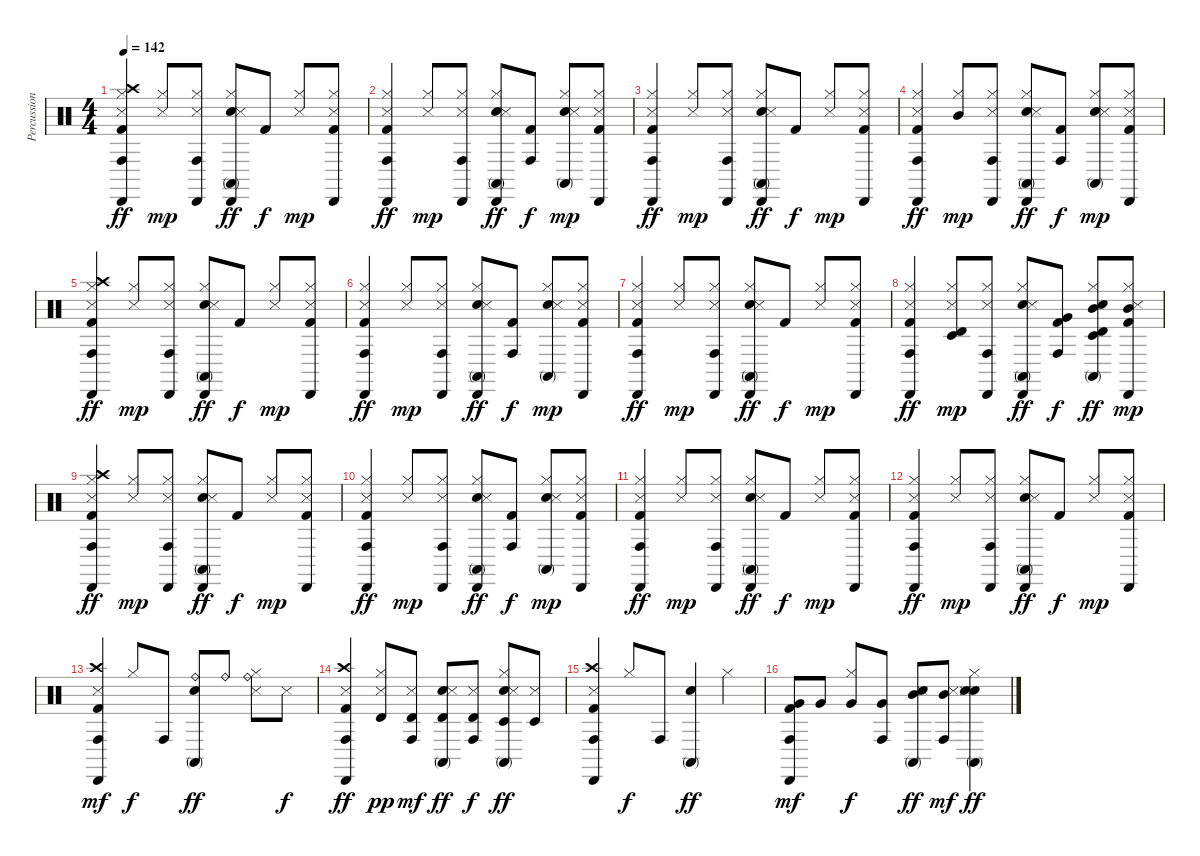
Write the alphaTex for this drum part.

\track ("Percussion" "Percussion") {instrument percussion}
\staff {score}
\articulation defaults
\ts (4 4)
\tempo 142
\clef neutral
\ks c
("Conga high (hit)" "Cabasa (hit)" "Crash high (hit)" "Hi-Hat (closed)" "Snare (side stick) 3" "Kick (hit) 2").4{dy ff} ("Hi-Hat (closed)" "Snare (side stick) 3").8{dy mp} ("Conga high (hit)" "Cabasa (hit)" "Hi-Hat (closed)" "Snare (side stick) 3").8 ("Conga high (mute)" "Cabasa (hit)" "Hi-Hat (closed)" "Hand Clap (hit)" "Snare (side stick) 3").8{dy ff} "Kick (hit) 2".8{dy f} ("Hi-Hat (closed)" "Snare (side stick) 3").8{dy mp} ("Cabasa (hit)" "Hi-Hat (closed)" "Snare (side stick) 3" "Kick (hit) 2").8 |
("Conga high (hit)" "Cabasa (hit)" "Hi-Hat (closed)" "Snare (side stick) 3" "Kick (hit) 2").4{dy ff} ("Hi-Hat (closed)" "Snare (side stick) 3").8{dy mp} ("Conga high (hit)" "Cabasa (hit)" "Hi-Hat (closed)" "Snare (side stick) 3").8 ("Conga high (mute)" "Cabasa (hit)" "Hi-Hat (closed)" "Hand Clap (hit)" "Snare (side stick) 3").8{dy ff} ("Conga high (hit)" "Kick (hit) 2").8{dy f} ("Conga high (mute)" "Hi-Hat (closed)" "Hand Clap (hit)" "Snare (side stick) 3").8{dy mp} ("Cabasa (hit)" "Hi-Hat (closed)" "Snare (side stick) 3" "Kick (hit) 2").8 |
("Conga high (hit)" "Cabasa (hit)" "Hi-Hat (closed)" "Snare (side stick) 3" "Kick (hit) 2").4{dy ff} ("Hi-Hat (closed)" "Snare (side stick) 3").8{dy mp} ("Conga high (hit)" "Cabasa (hit)" "Hi-Hat (closed)" "Snare (side stick) 3").8 ("Conga high (mute)" "Cabasa (hit)" "Hi-Hat (closed)" "Hand Clap (hit)" "Snare (side stick) 3").8{dy ff} "Kick (hit) 2".8{dy f} ("Hi-Hat (closed)" "Snare (side stick) 3").8{dy mp} ("Cabasa (hit)" "Hi-Hat (closed)" "Snare (side stick) 3" "Kick (hit) 2").8 |
("Conga high (hit)" "Cabasa (hit)" "Hi-Hat (closed)" "Snare (side stick) 3" "Kick (hit) 2").4{dy ff} ("Hi-Hat (closed)" "Mid Tom (hit)").8{dy mp} ("Conga high (hit)" "Cabasa (hit)" "Hi-Hat (closed)" "Snare (side stick) 3").8 ("Conga high (mute)" "Cabasa (hit)" "Hi-Hat (closed)" "Hand Clap (hit)" "Snare (side stick) 3").8{dy ff} ("Conga high (hit)" "Kick (hit) 2").8{dy f} ("Conga high (mute)" "Hi-Hat (closed)" "Hand Clap (hit)" "Snare (side stick) 3").8{dy mp} ("Cabasa (hit)" "Hi-Hat (closed)" "Snare (side stick) 3" "Kick (hit) 2").8 |
("Conga high (hit)" "Cabasa (hit)" "Crash high (hit)" "Hi-Hat (closed)" "Snare (side stick) 3" "Kick (hit) 2").4{dy ff} ("Hi-Hat (closed)" "Snare (side stick) 3").8{dy mp} ("Conga high (hit)" "Cabasa (hit)" "Hi-Hat (closed)" "Snare (side stick) 3").8 ("Conga high (mute)" "Cabasa (hit)" "Hi-Hat (closed)" "Hand Clap (hit)" "Snare (side stick) 3").8{dy ff} "Kick (hit) 2".8{dy f} ("Hi-Hat (closed)" "Snare (side stick) 3").8{dy mp} ("Cabasa (hit)" "Hi-Hat (closed)" "Snare (side stick) 3" "Kick (hit) 2").8 |
("Conga high (hit)" "Cabasa (hit)" "Hi-Hat (closed)" "Snare (side stick) 3" "Kick (hit) 2").4{dy ff} ("Hi-Hat (closed)" "Snare (side stick) 3").8{dy mp} ("Conga high (hit)" "Cabasa (hit)" "Hi-Hat (closed)" "Snare (side stick) 3").8 ("Conga high (mute)" "Cabasa (hit)" "Hi-Hat (closed)" "Hand Clap (hit)" "Snare (side stick) 3").8{dy ff} ("Conga high (hit)" "Kick (hit) 2").8{dy f} ("Conga high (mute)" "Hi-Hat (closed)" "Hand Clap (hit)" "Snare (side stick) 3").8{dy mp} ("Cabasa (hit)" "Hi-Hat (closed)" "Snare (side stick) 3" "Kick (hit) 2").8 |
("Conga high (hit)" "Cabasa (hit)" "Hi-Hat (closed)" "Snare (side stick) 3" "Kick (hit) 2").4{dy ff} ("Hi-Hat (closed)" "Snare (side stick) 3").8{dy mp} ("Conga high (hit)" "Cabasa (hit)" "Hi-Hat (closed)" "Snare (side stick) 3").8 ("Conga high (mute)" "Cabasa (hit)" "Hi-Hat (closed)" "Hand Clap (hit)" "Snare (side stick) 3").8{dy ff} "Kick (hit) 2".8{dy f} ("Hi-Hat (closed)" "Snare (side stick) 3").8{dy mp} ("Cabasa (hit)" "Hi-Hat (closed)" "Snare (side stick) 3" "Kick (hit) 2").8 |
("Conga high (hit)" "Cabasa (hit)" "Hi-Hat (closed)" "Snare (side stick) 3" "Kick (hit) 2").4{dy ff} ("Timbale low (hit)" "Timbale high (hit)" "Hi-Hat (closed)" "Snare (side stick) 3").8{dy mp} ("Conga high (hit)" "Cabasa (hit)" "Hi-Hat (closed)" "Snare (side stick) 3").8 ("Conga high (mute)" "Cabasa (hit)" "Hi-Hat (closed)" "Hand Clap (hit)" "Snare (side stick) 3").8{dy ff} ("Conga high (hit)" "Very Low Tom (hit)" "Kick (hit) 2").8{dy f} ("Timbale low (hit)" "Timbale high (hit)" "Conga high (mute)" "Mid Tom (hit)" "Hi-Hat (closed)" "Hand Clap (hit)").8{dy ff} ("Cabasa (hit)" "Mid Tom (hit)" "Hi-Hat (closed)" "Snare (side stick) 3" "Kick (hit) 2").8{dy mp} |
("Conga high (hit)" "Cabasa (hit)" "Crash high (hit)" "Hi-Hat (closed)" "Snare (side stick) 3" "Kick (hit) 2").4{dy ff} ("Hi-Hat (closed)" "Snare (side stick) 3").8{dy mp} ("Conga high (hit)" "Cabasa (hit)" "Hi-Hat (closed)" "Snare (side stick) 3").8 ("Conga high (mute)" "Cabasa (hit)" "Hi-Hat (closed)" "Hand Clap (hit)" "Snare (side stick) 3").8{dy ff} "Kick (hit) 2".8{dy f} ("Hi-Hat (closed)" "Snare (side stick) 3").8{dy mp} ("Cabasa (hit)" "Hi-Hat (closed)" "Snare (side stick) 3" "Kick (hit) 2").8 |
("Conga high (hit)" "Cabasa (hit)" "Hi-Hat (closed)" "Snare (side stick) 3" "Kick (hit) 2").4{dy ff} ("Hi-Hat (closed)" "Snare (side stick) 3").8{dy mp} ("Conga high (hit)" "Cabasa (hit)" "Hi-Hat (closed)" "Snare (side stick) 3").8 ("Conga high (mute)" "Cabasa (hit)" "Hi-Hat (closed)" "Hand Clap (hit)" "Snare (side stick) 3").8{dy ff} ("Conga high (hit)" "Kick (hit) 2").8{dy f} ("Conga high (mute)" "Hi-Hat (closed)" "Hand Clap (hit)" "Snare (side stick) 3").8{dy mp} ("Cabasa (hit)" "Hi-Hat (closed)" "Snare (side stick) 3" "Kick (hit) 2").8 |
("Conga high (hit)" "Cabasa (hit)" "Hi-Hat (closed)" "Snare (side stick) 3" "Kick (hit) 2").4{dy ff} ("Hi-Hat (closed)" "Snare (side stick) 3").8{dy mp} ("Conga high (hit)" "Cabasa (hit)" "Hi-Hat (closed)" "Snare (side stick) 3").8 ("Conga high (mute)" "Cabasa (hit)" "Hi-Hat (closed)" "Hand Clap (hit)" "Snare (side stick) 3").8{dy ff} "Kick (hit) 2".8{dy f} ("Hi-Hat (closed)" "Snare (side stick) 3").8{dy mp} ("Cabasa (hit)" "Hi-Hat (closed)" "Snare (side stick) 3" "Kick (hit) 2").8 |
("Conga high (hit)" "Cabasa (hit)" "Hi-Hat (closed)" "Snare (side stick) 3" "Kick (hit) 2").4{dy ff} ("Hi-Hat (closed)" "Snare (side stick) 3").8{dy mp} ("Conga high (hit)" "Cabasa (hit)" "Hi-Hat (closed)" "Snare (side stick) 3").8 ("Conga high (mute)" "Cabasa (hit)" "Hi-Hat (closed)" "Hand Clap (hit)" "Snare (side stick) 3").8{dy ff} "Kick (hit) 2".8{dy f} ("Hi-Hat (closed)" "Snare (side stick) 3").8{dy mp} ("Cabasa (hit)" "Hi-Hat (closed)" "Snare (side stick) 3" "Kick (hit) 2").8 |
("Conga high (hit)" "Cabasa (hit)" "Crash high (hit)" "Snare (side stick) 3" "Kick (hit) 2").4{dy mf} "Hi-Hat (closed)".8{dy f} "Conga high (hit)".8 ("Conga high (mute)" "Ride (bell)" "Hand Clap (hit)").8{dy ff} "Ride (bell)".8 ("Ride (bell)" "Hi-Hat (closed)" "Snare (side stick) 3").8 "Snare (side stick) 3".8{dy f} |
("Conga high (hit)" "Cabasa (hit)" "Crash high (hit)" "Snare (side stick) 3" "Kick (hit) 2").4{dy ff} ("Timbale high (hit)" "Hi-Hat (closed)" "Snare (side stick) 3").8{dy pp} ("Timbale high (hit)" "Conga high (hit)" "Snare (side stick) 3").8{dy mf} ("Timbale high (hit)" "Conga high (mute)" "Hand Clap (hit)" "Snare (side stick) 3").8{dy ff} ("Timbale high (hit)" "Conga high (hit)" "Snare (side stick) 3").8{dy f} ("Timbale low (hit)" "Conga high (mute)" "Hi-Hat (closed)" "Hand Clap (hit)" "Snare (side stick) 3").8{dy ff} ("Timbale low (hit)" "Snare (side stick) 3").8 |
("Conga high (hit)" "Cabasa (hit)" "Crash high (hit)" "Snare (side stick) 3" "Kick (hit) 2").4 "Hi-Hat (closed)".8{dy f} "Conga high (hit)".8 ("Conga high (mute)" "Hand Clap (hit)").4{dy ff} "Hi-Hat (closed)".4 |
("Conga high (hit)" "Cabasa (hit)" "Very Low Tom (hit)" "Kick (hit) 2").8{dy mf} "Very Low Tom (hit)".8 ("Very Low Tom (hit)" "Hi-Hat (closed)").8{dy f} ("Conga high (hit)" "Very Low Tom (hit)").8 ("Conga high (mute)" "Mid Tom (hit)" "Hand Clap (hit)" "Snare (side stick) 3").8{dy ff} ("Conga high (hit)" "Mid Tom (hit)" "Snare (side stick) 3").8{dy mf} ("Conga high (mute)" "Hi-Hat (closed)" "Hand Clap (hit)" "Snare (hit) 2" "Snare (side stick) 3").4{dy ff}
